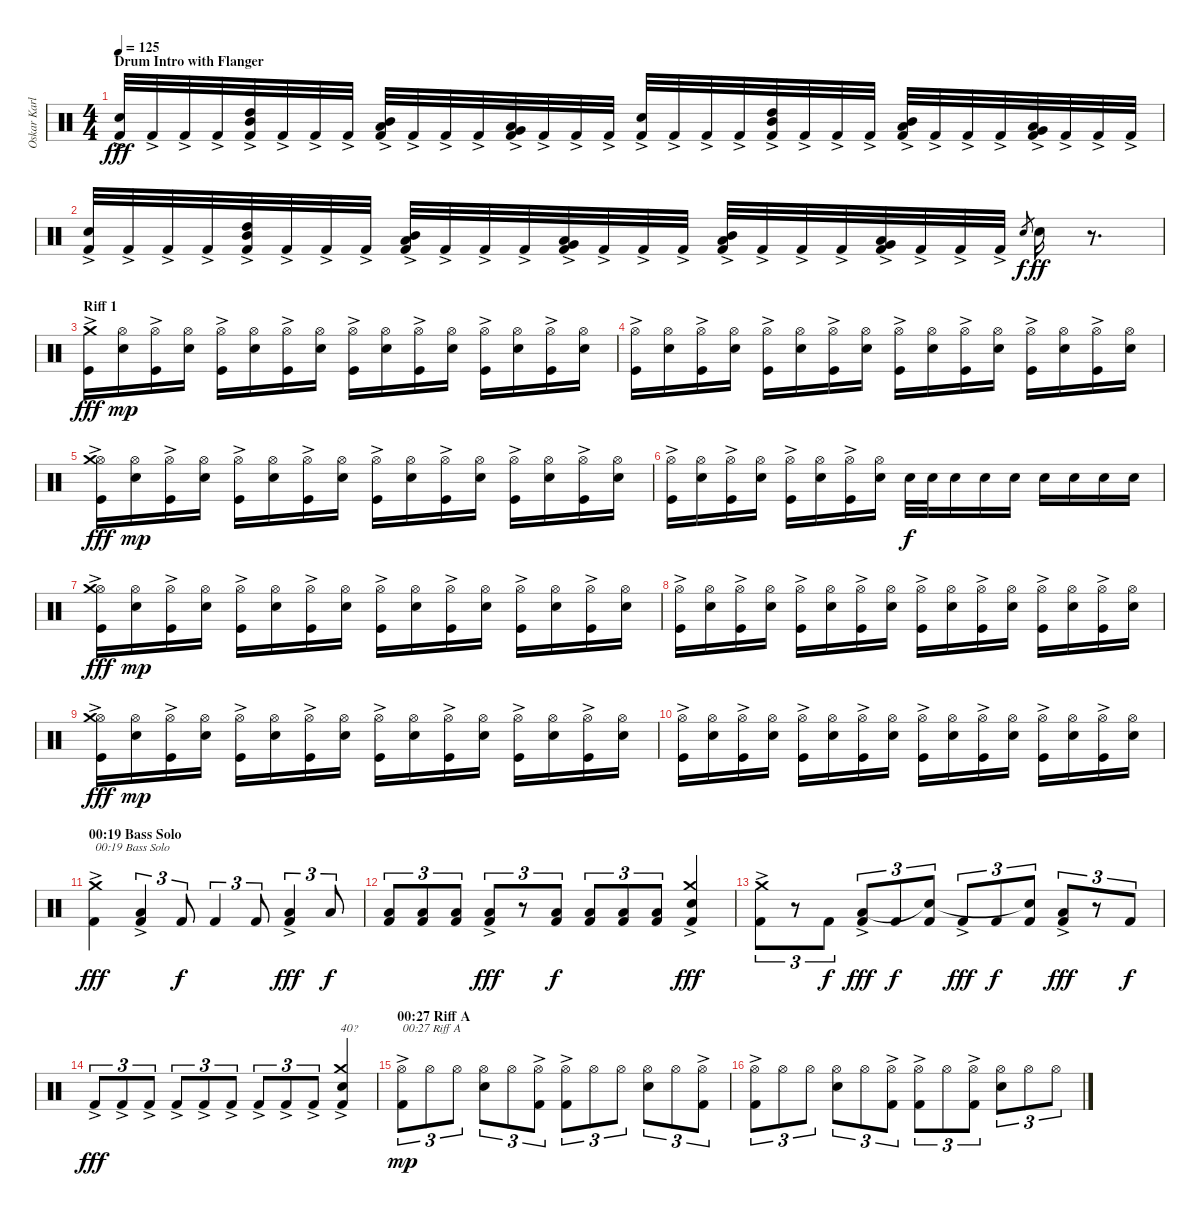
\track ("Oskar Karlsson" "Oskar Karl") {instrument percussion}
\staff {score}
\articulation defaults
\ts (4 4)
\section ("" "Drum Intro with Flanger")
\tempo 125
\clef neutral
\ks c
("Kick (hit) 2"{ac} "Snare (hit) 2").32{dy fff} "Kick (hit) 2"{ac}.32 "Kick (hit) 2"{ac}.32 "Kick (hit) 2"{ac}.32 ("Kick (hit) 2"{ac} "Mid Tom (hit)" "High Tom (hit)").32 "Kick (hit) 2"{ac}.32 "Kick (hit) 2"{ac}.32 "Kick (hit) 2"{ac}.32 ("Kick (hit) 2"{ac} "Low Tom (hit)" "Mid Tom (hit)").32 "Kick (hit) 2"{ac}.32 "Kick (hit) 2"{ac}.32 "Kick (hit) 2"{ac}.32 ("Kick (hit) 2"{ac} "Very Low Tom (hit)" "Low Tom (hit)").32 "Kick (hit) 2"{ac}.32 "Kick (hit) 2"{ac}.32 "Kick (hit) 2"{ac}.32 ("Kick (hit) 2"{ac} "Snare (hit) 2").32 "Kick (hit) 2"{ac}.32 "Kick (hit) 2"{ac}.32 "Kick (hit) 2"{ac}.32 ("Kick (hit) 2"{ac} "Mid Tom (hit)" "High Tom (hit)").32 "Kick (hit) 2"{ac}.32 "Kick (hit) 2"{ac}.32 "Kick (hit) 2"{ac}.32 ("Kick (hit) 2"{ac} "Low Tom (hit)" "Mid Tom (hit)").32 "Kick (hit) 2"{ac}.32 "Kick (hit) 2"{ac}.32 "Kick (hit) 2"{ac}.32 ("Kick (hit) 2"{ac} "Very Low Tom (hit)" "Low Tom (hit)").32 "Kick (hit) 2"{ac}.32 "Kick (hit) 2"{ac}.32 "Kick (hit) 2"{ac}.32 |
("Kick (hit) 2"{ac} "Snare (hit) 2").32 "Kick (hit) 2"{ac}.32 "Kick (hit) 2"{ac}.32 "Kick (hit) 2"{ac}.32 ("Kick (hit) 2"{ac} "Mid Tom (hit)" "High Tom (hit)").32 "Kick (hit) 2"{ac}.32 "Kick (hit) 2"{ac}.32 "Kick (hit) 2"{ac}.32 ("Kick (hit) 2"{ac} "Low Tom (hit)" "Mid Tom (hit)").32 "Kick (hit) 2"{ac}.32 "Kick (hit) 2"{ac}.32 "Kick (hit) 2"{ac}.32 ("Kick (hit) 2"{ac} "Very Low Tom (hit)" "Low Tom (hit)").32 "Kick (hit) 2"{ac}.32 "Kick (hit) 2"{ac}.32 "Kick (hit) 2"{ac}.32 ("Kick (hit) 2"{ac} "Low Tom (hit)" "Mid Tom (hit)").32 "Kick (hit) 2"{ac}.32 "Kick (hit) 2"{ac}.32 "Kick (hit) 2"{ac}.32 ("Kick (hit) 2"{ac} "Very Low Tom (hit)" "Low Tom (hit)").32 "Kick (hit) 2"{ac}.32 "Kick (hit) 2"{ac}.32 "Kick (hit) 2"{ac}.32 "Snare (hit) 2".8{gr dy f} "Snare (hit) 2".16{dy ff} r.8{d} |
\section ("" "Riff 1")
("Kick (hit)"{ac} "Crash medium (hit)"{ac}).16{dy fff} ("Electric Snare (hit)" "Hi-Hat (open)").16{dy mp} ("Kick (hit)"{ac} "Hi-Hat (open)").16 ("Electric Snare (hit)" "Hi-Hat (open)").16 ("Kick (hit)"{ac} "Hi-Hat (open)").16 ("Electric Snare (hit)" "Hi-Hat (open)").16 ("Kick (hit)"{ac} "Hi-Hat (open)").16 ("Electric Snare (hit)" "Hi-Hat (open)").16 ("Kick (hit)"{ac} "Hi-Hat (open)").16 ("Electric Snare (hit)" "Hi-Hat (open)").16 ("Kick (hit)"{ac} "Hi-Hat (open)").16 ("Electric Snare (hit)" "Hi-Hat (open)").16 ("Kick (hit)"{ac} "Hi-Hat (open)").16 ("Electric Snare (hit)" "Hi-Hat (open)").16 ("Kick (hit)"{ac} "Hi-Hat (open)").16 ("Electric Snare (hit)" "Hi-Hat (open)").16 |
("Kick (hit)"{ac} "Hi-Hat (open)").16 ("Electric Snare (hit)" "Hi-Hat (open)").16 ("Kick (hit)"{ac} "Hi-Hat (open)").16 ("Electric Snare (hit)" "Hi-Hat (open)").16 ("Kick (hit)"{ac} "Hi-Hat (open)").16 ("Electric Snare (hit)" "Hi-Hat (open)").16 ("Kick (hit)"{ac} "Hi-Hat (open)").16 ("Electric Snare (hit)" "Hi-Hat (open)").16 ("Kick (hit)"{ac} "Hi-Hat (open)").16 ("Electric Snare (hit)" "Hi-Hat (open)").16 ("Kick (hit)"{ac} "Hi-Hat (open)").16 ("Electric Snare (hit)" "Hi-Hat (open)").16 ("Kick (hit)"{ac} "Hi-Hat (open)").16 ("Electric Snare (hit)" "Hi-Hat (open)").16 ("Kick (hit)"{ac} "Hi-Hat (open)").16 ("Electric Snare (hit)" "Hi-Hat (open)").16 |
("Kick (hit)"{ac} "Hi-Hat (open)" "Crash medium (hit)"{ac}).16{dy fff} ("Electric Snare (hit)" "Hi-Hat (open)").16{dy mp} ("Kick (hit)"{ac} "Hi-Hat (open)").16 ("Electric Snare (hit)" "Hi-Hat (open)").16 ("Kick (hit)"{ac} "Hi-Hat (open)").16 ("Electric Snare (hit)" "Hi-Hat (open)").16 ("Kick (hit)"{ac} "Hi-Hat (open)").16 ("Electric Snare (hit)" "Hi-Hat (open)").16 ("Kick (hit)"{ac} "Hi-Hat (open)").16 ("Electric Snare (hit)" "Hi-Hat (open)").16 ("Kick (hit)"{ac} "Hi-Hat (open)").16 ("Electric Snare (hit)" "Hi-Hat (open)").16 ("Kick (hit)"{ac} "Hi-Hat (open)").16 ("Electric Snare (hit)" "Hi-Hat (open)").16 ("Kick (hit)"{ac} "Hi-Hat (open)").16 ("Electric Snare (hit)" "Hi-Hat (open)").16 |
("Kick (hit)"{ac} "Hi-Hat (open)").16 ("Electric Snare (hit)" "Hi-Hat (open)").16 ("Kick (hit)"{ac} "Hi-Hat (open)").16 ("Electric Snare (hit)" "Hi-Hat (open)").16 ("Kick (hit)"{ac} "Hi-Hat (open)").16 ("Electric Snare (hit)" "Hi-Hat (open)").16 ("Kick (hit)"{ac} "Hi-Hat (open)").16 ("Electric Snare (hit)" "Hi-Hat (open)").16 "Electric Snare (hit)".32{dy f} "Electric Snare (hit)".32 "Electric Snare (hit)".16 "Electric Snare (hit)".16 "Electric Snare (hit)".16 "Electric Snare (hit)".16 "Electric Snare (hit)".16 "Electric Snare (hit)".16 "Electric Snare (hit)".16 |
("Kick (hit)"{ac} "Hi-Hat (open)" "Crash medium (hit)").16{dy fff} ("Electric Snare (hit)" "Hi-Hat (open)").16{dy mp} ("Kick (hit)"{ac} "Hi-Hat (open)").16 ("Electric Snare (hit)" "Hi-Hat (open)").16 ("Kick (hit)"{ac} "Hi-Hat (open)").16 ("Electric Snare (hit)" "Hi-Hat (open)").16 ("Kick (hit)"{ac} "Hi-Hat (open)").16 ("Electric Snare (hit)" "Hi-Hat (open)").16 ("Kick (hit)"{ac} "Hi-Hat (open)").16 ("Electric Snare (hit)" "Hi-Hat (open)").16 ("Kick (hit)"{ac} "Hi-Hat (open)").16 ("Electric Snare (hit)" "Hi-Hat (open)").16 ("Kick (hit)"{ac} "Hi-Hat (open)").16 ("Electric Snare (hit)" "Hi-Hat (open)").16 ("Kick (hit)"{ac} "Hi-Hat (open)").16 ("Electric Snare (hit)" "Hi-Hat (open)").16 |
("Kick (hit)"{ac} "Hi-Hat (open)").16 ("Electric Snare (hit)" "Hi-Hat (open)").16 ("Kick (hit)"{ac} "Hi-Hat (open)").16 ("Electric Snare (hit)" "Hi-Hat (open)").16 ("Kick (hit)"{ac} "Hi-Hat (open)").16 ("Electric Snare (hit)" "Hi-Hat (open)").16 ("Kick (hit)"{ac} "Hi-Hat (open)").16 ("Electric Snare (hit)" "Hi-Hat (open)").16 ("Kick (hit)"{ac} "Hi-Hat (open)").16 ("Electric Snare (hit)" "Hi-Hat (open)").16 ("Kick (hit)"{ac} "Hi-Hat (open)").16 ("Electric Snare (hit)" "Hi-Hat (open)").16 ("Kick (hit)"{ac} "Hi-Hat (open)").16 ("Electric Snare (hit)" "Hi-Hat (open)").16 ("Kick (hit)"{ac} "Hi-Hat (open)").16 ("Electric Snare (hit)" "Hi-Hat (open)").16 |
("Kick (hit)"{ac} "Hi-Hat (open)" "Crash medium (hit)").16{dy fff} ("Electric Snare (hit)" "Hi-Hat (open)").16{dy mp} ("Kick (hit)"{ac} "Hi-Hat (open)").16 ("Electric Snare (hit)" "Hi-Hat (open)").16 ("Kick (hit)"{ac} "Hi-Hat (open)").16 ("Electric Snare (hit)" "Hi-Hat (open)").16 ("Kick (hit)"{ac} "Hi-Hat (open)").16 ("Electric Snare (hit)" "Hi-Hat (open)").16 ("Kick (hit)"{ac} "Hi-Hat (open)").16 ("Electric Snare (hit)" "Hi-Hat (open)").16 ("Kick (hit)"{ac} "Hi-Hat (open)").16 ("Electric Snare (hit)" "Hi-Hat (open)").16 ("Kick (hit)"{ac} "Hi-Hat (open)").16 ("Electric Snare (hit)" "Hi-Hat (open)").16 ("Kick (hit)"{ac} "Hi-Hat (open)").16 ("Electric Snare (hit)" "Hi-Hat (open)").16 |
("Kick (hit)"{ac} "Hi-Hat (open)").16 ("Electric Snare (hit)" "Hi-Hat (open)").16 ("Kick (hit)"{ac} "Hi-Hat (open)").16 ("Electric Snare (hit)" "Hi-Hat (open)").16 ("Kick (hit)"{ac} "Hi-Hat (open)").16 ("Electric Snare (hit)" "Hi-Hat (open)").16 ("Kick (hit)"{ac} "Hi-Hat (open)").16 ("Electric Snare (hit)" "Hi-Hat (open)").16 ("Kick (hit)"{ac} "Hi-Hat (open)").16 ("Electric Snare (hit)" "Hi-Hat (open)").16 ("Kick (hit)"{ac} "Hi-Hat (open)").16 ("Electric Snare (hit)" "Hi-Hat (open)").16 ("Kick (hit)"{ac} "Hi-Hat (open)").16 ("Electric Snare (hit)" "Hi-Hat (open)").16 ("Kick (hit)"{ac} "Hi-Hat (open)").16 ("Electric Snare (hit)" "Hi-Hat (open)").16 |
\section ("" "00:19 Bass Solo")
("Kick (hit) 2"{ac} "Crash medium (hit)"{ac}).4{txt "00:19 Bass Solo" dy fff} ("Kick (hit) 2" "Low Tom (hit)"{ac}).4{tu (3 2)} "Kick (hit) 2".8{tu (3 2) dy f} "Kick (hit) 2".4{tu (3 2)} "Kick (hit) 2".8{tu (3 2)} ("Kick (hit) 2"{ac} "Low Tom (hit)"{ac}).4{tu (3 2) dy fff} "Low Tom (hit)".8{tu (3 2) dy f} |
("Kick (hit) 2" "Low Tom (hit)").8{tu (3 2)} ("Kick (hit) 2" "Low Tom (hit)").8{tu (3 2)} ("Kick (hit) 2" "Low Tom (hit)").8{tu (3 2)} ("Kick (hit) 2"{ac} "Low Tom (hit)").8{tu (3 2) dy fff} r.8{tu (3 2)} ("Kick (hit) 2" "Low Tom (hit)").8{tu (3 2) dy f} ("Kick (hit) 2" "Low Tom (hit)").8{tu (3 2)} ("Kick (hit) 2" "Low Tom (hit)").8{tu (3 2)} ("Kick (hit) 2" "Low Tom (hit)").8{tu (3 2)} ("Kick (hit) 2"{ac} "Electric Snare (hit)" "Crash medium (hit)"{ac}).4{dy fff} |
("Kick (hit) 2"{ac} "Crash medium (hit)").8{tu (3 2)} r.8{tu (3 2)} "Kick (hit) 2".8{tu (3 2) dy f} ("Kick (hit) 2"{ac} "Low Tom (hit)"{ac}).8{tu (3 2) dy fff} "Kick (hit) 2".8{tu (3 2) dy f} ("Kick (hit) 2" "Snare (hit)"{t}).8{tu (3 2)} "Kick (hit) 2"{ac}.8{tu (3 2) dy fff} "Kick (hit) 2".8{tu (3 2) dy f} ("Kick (hit) 2" "Snare (hit)"{t}).8{tu (3 2)} ("Kick (hit) 2"{ac} "Low Tom (hit)"{ac}).8{tu (3 2) dy fff} r.8{tu (3 2)} "Kick (hit) 2".8{tu (3 2) dy f} |
"Kick (hit) 2"{ac}.8{tu (3 2) dy fff} "Kick (hit) 2"{ac}.8{tu (3 2)} "Kick (hit) 2"{ac}.8{tu (3 2)} "Kick (hit) 2"{ac}.8{tu (3 2)} "Kick (hit) 2"{ac}.8{tu (3 2)} "Kick (hit) 2"{ac}.8{tu (3 2)} "Kick (hit) 2"{ac}.8{tu (3 2)} "Kick (hit) 2"{ac}.8{tu (3 2)} "Kick (hit) 2"{ac}.8{tu (3 2)} ("Kick (hit) 2"{ac} "Electric Snare (hit)"{ac} "Crash medium (hit)"{ac}).4{txt "40?"} |
\section ("" "00:27 Riff A")
("Kick (hit) 2"{ac} "Hi-Hat (open)").8{tu (3 2) txt "00:27 Riff A" dy mp} "Hi-Hat (open)".8{tu (3 2)} "Hi-Hat (open)".8{tu (3 2)} ("Electric Snare (hit)" "Hi-Hat (open)").8{tu (3 2)} "Hi-Hat (open)".8{tu (3 2)} ("Kick (hit) 2"{ac} "Hi-Hat (open)").8{tu (3 2)} ("Kick (hit) 2"{ac} "Hi-Hat (open)").8{tu (3 2)} "Hi-Hat (open)".8{tu (3 2)} "Hi-Hat (open)".8{tu (3 2)} ("Electric Snare (hit)" "Hi-Hat (open)").8{tu (3 2)} "Hi-Hat (open)".8{tu (3 2)} ("Kick (hit) 2"{ac} "Hi-Hat (open)").8{tu (3 2)} |
("Kick (hit) 2"{ac} "Hi-Hat (open)").8{tu (3 2)} "Hi-Hat (open)".8{tu (3 2)} "Hi-Hat (open)".8{tu (3 2)} ("Electric Snare (hit)" "Hi-Hat (open)").8{tu (3 2)} "Hi-Hat (open)".8{tu (3 2)} ("Kick (hit) 2"{ac} "Hi-Hat (open)").8{tu (3 2)} ("Kick (hit) 2"{ac} "Hi-Hat (open)").8{tu (3 2)} "Hi-Hat (open)".8{tu (3 2)} ("Kick (hit) 2"{ac} "Hi-Hat (open)").8{tu (3 2)} ("Electric Snare (hit)" "Hi-Hat (open)").8{tu (3 2)} "Hi-Hat (open)".8{tu (3 2)} "Hi-Hat (open)".8{tu (3 2)}
